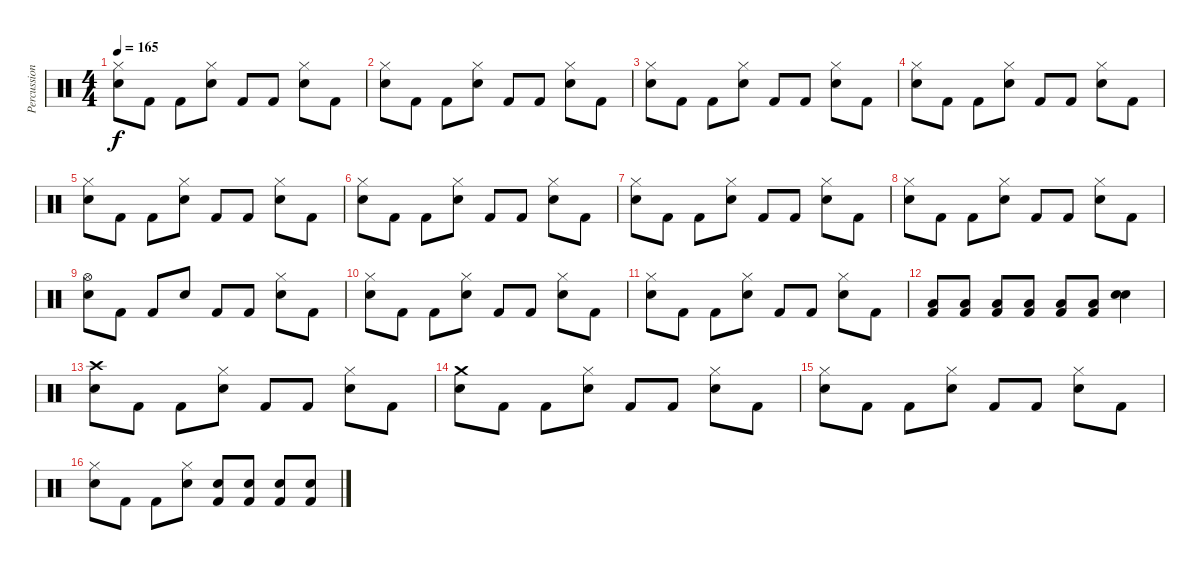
\track ("Percussion" "Percussion") {instrument percussion}
\staff {score}
\articulation defaults
\ts (4 4)
\tempo 165
\clef neutral
\ks c
("Hi-Hat (closed)" "Electric Snare (hit)").8{dy f} "Kick (hit) 2".8 "Kick (hit) 2".8 ("Hi-Hat (closed)" "Electric Snare (hit)").8 "Kick (hit) 2".8 "Kick (hit) 2".8 ("Hi-Hat (closed)" "Electric Snare (hit)").8 "Kick (hit) 2".8 |
("Hi-Hat (closed)" "Electric Snare (hit)").8 "Kick (hit) 2".8 "Kick (hit) 2".8 ("Hi-Hat (closed)" "Electric Snare (hit)").8 "Kick (hit) 2".8 "Kick (hit) 2".8 ("Hi-Hat (closed)" "Electric Snare (hit)").8 "Kick (hit) 2".8 |
("Hi-Hat (closed)" "Electric Snare (hit)").8 "Kick (hit) 2".8 "Kick (hit) 2".8 ("Hi-Hat (closed)" "Electric Snare (hit)").8 "Kick (hit) 2".8 "Kick (hit) 2".8 ("Hi-Hat (closed)" "Electric Snare (hit)").8 "Kick (hit) 2".8 |
("Hi-Hat (closed)" "Electric Snare (hit)").8 "Kick (hit) 2".8 "Kick (hit) 2".8 ("Hi-Hat (closed)" "Electric Snare (hit)").8 "Kick (hit) 2".8 "Kick (hit) 2".8 ("Hi-Hat (closed)" "Electric Snare (hit)").8 "Kick (hit) 2".8 |
("Hi-Hat (closed)" "Electric Snare (hit)").8 "Kick (hit) 2".8 "Kick (hit) 2".8 ("Hi-Hat (closed)" "Electric Snare (hit)").8 "Kick (hit) 2".8 "Kick (hit) 2".8 ("Hi-Hat (closed)" "Electric Snare (hit)").8 "Kick (hit) 2".8 |
("Hi-Hat (closed)" "Electric Snare (hit)").8 "Kick (hit) 2".8 "Kick (hit) 2".8 ("Hi-Hat (closed)" "Electric Snare (hit)").8 "Kick (hit) 2".8 "Kick (hit) 2".8 ("Hi-Hat (closed)" "Electric Snare (hit)").8 "Kick (hit) 2".8 |
("Hi-Hat (closed)" "Electric Snare (hit)").8 "Kick (hit) 2".8 "Kick (hit) 2".8 ("Hi-Hat (closed)" "Electric Snare (hit)").8 "Kick (hit) 2".8 "Kick (hit) 2".8 ("Hi-Hat (closed)" "Electric Snare (hit)").8 "Kick (hit) 2".8 |
("Hi-Hat (closed)" "Electric Snare (hit)").8 "Kick (hit) 2".8 "Kick (hit) 2".8 ("Hi-Hat (closed)" "Electric Snare (hit)").8 "Kick (hit) 2".8 "Kick (hit) 2".8 ("Hi-Hat (closed)" "Electric Snare (hit)").8 "Kick (hit) 2".8 |
("Hi-Hat (open)" "Electric Snare (hit)").8 "Kick (hit) 2".8 "Kick (hit) 2".8 "Electric Snare (hit)".8 "Kick (hit) 2".8 "Kick (hit) 2".8 ("Hi-Hat (closed)" "Electric Snare (hit)").8 "Kick (hit) 2".8 |
("Hi-Hat (closed)" "Electric Snare (hit)").8 "Kick (hit) 2".8 "Kick (hit) 2".8 ("Hi-Hat (closed)" "Electric Snare (hit)").8 "Kick (hit) 2".8 "Kick (hit) 2".8 ("Hi-Hat (closed)" "Electric Snare (hit)").8 "Kick (hit) 2".8 |
("Hi-Hat (closed)" "Electric Snare (hit)").8 "Kick (hit) 2".8 "Kick (hit) 2".8 ("Hi-Hat (closed)" "Electric Snare (hit)").8 "Kick (hit) 2".8 "Kick (hit) 2".8 ("Hi-Hat (closed)" "Electric Snare (hit)").8 "Kick (hit) 2".8 |
("Low Tom (hit)" "Kick (hit) 2").8 ("Low Tom (hit)" "Kick (hit) 2").8 ("Low Tom (hit)" "Kick (hit) 2").8 ("Low Tom (hit)" "Kick (hit) 2").8 ("Low Tom (hit)" "Kick (hit) 2").8 ("Low Tom (hit)" "Kick (hit) 2").8 ("Electric Snare (hit)" "Electric Snare (hit)").4{bu 240} |
("Crash high (hit)" "Electric Snare (hit)").8 "Kick (hit) 2".8 "Kick (hit) 2".8 ("Hi-Hat (closed)" "Electric Snare (hit)").8 "Kick (hit) 2".8 "Kick (hit) 2".8 ("Hi-Hat (closed)" "Electric Snare (hit)").8 "Kick (hit) 2".8 |
("Crash medium (hit)" "Electric Snare (hit)").8 "Kick (hit) 2".8 "Kick (hit) 2".8 ("Hi-Hat (closed)" "Electric Snare (hit)").8 "Kick (hit) 2".8 "Kick (hit) 2".8 ("Hi-Hat (closed)" "Electric Snare (hit)").8 "Kick (hit) 2".8 |
("Hi-Hat (closed)" "Electric Snare (hit)").8 "Kick (hit) 2".8 "Kick (hit) 2".8 ("Hi-Hat (closed)" "Electric Snare (hit)").8 "Kick (hit) 2".8 "Kick (hit) 2".8 ("Hi-Hat (closed)" "Electric Snare (hit)").8 "Kick (hit) 2".8 |
("Hi-Hat (closed)" "Electric Snare (hit)").8 "Kick (hit) 2".8 "Kick (hit) 2".8 ("Hi-Hat (closed)" "Electric Snare (hit)").8 ("Electric Snare (hit)" "Kick (hit) 2").8 ("Electric Snare (hit)" "Kick (hit) 2").8 ("Electric Snare (hit)" "Kick (hit) 2").8 ("Electric Snare (hit)" "Kick (hit) 2").8
